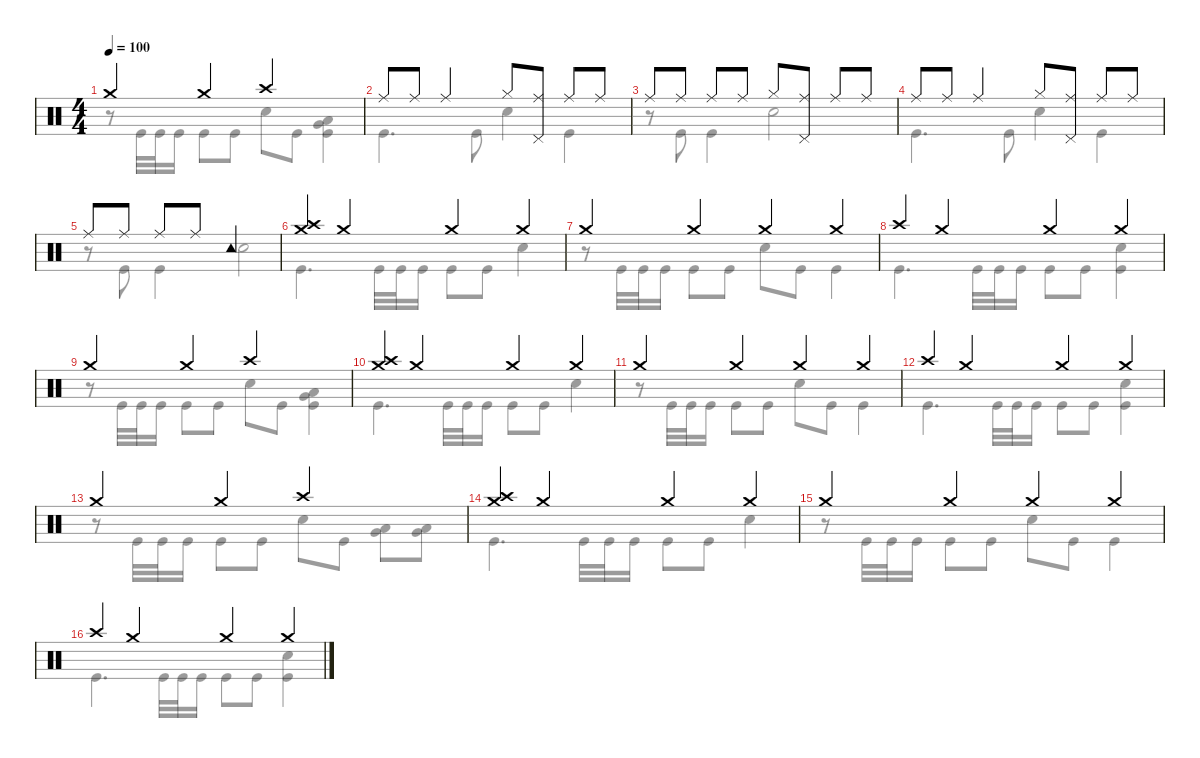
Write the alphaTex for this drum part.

\defaultSystemsLayout 4
\hideDynamics
\bracketExtendMode nobrackets
\singleTrackTrackNamePolicy hidden
\multiTrackTrackNamePolicy hidden
\firstSystemTrackNameMode fullname
\otherSystemsTrackNameOrientation horizontal
\track ("Drums" "drm.") {instrument percussion}
\staff {score}
\articulation defaults
\voice
\ts (4 4)
\tempo 100
\clef neutral
\ks c "Crash medium (hit)".4{dy f beam Up} "Crash medium (hit)".4{beam Up} "Crash high (hit)".2{beam Up}
|
"Ride (middle)".8{beam Up} "Ride (middle)".8{beam Up} "Ride (middle)".4{beam Up} "Hi-Hat (closed)".8{beam Up} ("Ride (middle)" "Pedal Hi-Hat (hit)").8{beam Up} "Ride (middle)".8{beam Up} "Ride (middle)".8{beam Up} |
"Ride (middle)".8{beam Up} "Ride (middle)".8{beam Up} "Ride (middle)".8{beam Up} "Ride (middle)".8{beam Up} "Hi-Hat (closed)".8{beam Up} ("Ride (middle)" "Pedal Hi-Hat (hit)").8{beam Up} "Ride (middle)".8{beam Up} "Ride (middle)".8{beam Up} |
"Ride (middle)".8{beam Up} "Ride (middle)".8{beam Up} "Ride (middle)".4{beam Up} "Hi-Hat (closed)".8{beam Up} ("Ride (middle)" "Pedal Hi-Hat (hit)").8{beam Up} "Ride (middle)".8{beam Up} "Ride (middle)".8{beam Up} |
"Ride (middle)".8{beam Up} "Ride (middle)".8{beam Up} "Ride (middle)".8{beam Up} "Ride (middle)".8{beam Up} "Tambourine (hit)".2{beam Up} |
("Crash medium (hit)" "Crash high (hit)").4{beam Up} "Crash medium (hit)".4{beam Up} "Crash medium (hit)".4{beam Up} "Crash medium (hit)".4{beam Up} |
"Crash medium (hit)".4{beam Up} "Crash medium (hit)".4{beam Up} "Crash medium (hit)".4{beam Up} "Crash medium (hit)".4{beam Up} |
"Crash high (hit)".4{beam Up} "Crash medium (hit)".4{beam Up} "Crash medium (hit)".4{beam Up} "Crash medium (hit)".4{beam Up} |
"Crash medium (hit)".4{beam Up} "Crash medium (hit)".4{beam Up} "Crash high (hit)".2{beam Up} |
("Crash medium (hit)" "Crash high (hit)").4{beam Up} "Crash medium (hit)".4{beam Up} "Crash medium (hit)".4{beam Up} "Crash medium (hit)".4{beam Up} |
"Crash medium (hit)".4{beam Up} "Crash medium (hit)".4{beam Up} "Crash medium (hit)".4{beam Up} "Crash medium (hit)".4{beam Up} |
"Crash high (hit)".4{beam Up} "Crash medium (hit)".4{beam Up} "Crash medium (hit)".4{beam Up} "Crash medium (hit)".4{beam Up} |
"Crash medium (hit)".4{beam Up} "Crash medium (hit)".4{beam Up} "Crash high (hit)".2{beam Up} |
("Crash medium (hit)" "Crash high (hit)").4{beam Up} "Crash medium (hit)".4{beam Up} "Crash medium (hit)".4{beam Up} "Crash medium (hit)".4{beam Up} |
"Crash medium (hit)".4{beam Up} "Crash medium (hit)".4{beam Up} "Crash medium (hit)".4{beam Up} "Crash medium (hit)".4{beam Up} |
"Crash high (hit)".4{beam Up} "Crash medium (hit)".4{beam Up} "Crash medium (hit)".4{beam Up} "Crash medium (hit)".4{beam Up}
\voice
\clef neutral
\ottava regular
\simile none
\ks c
r.8{dy f beam Down} "Kick (hit)".32{beam Down} "Kick (hit)".32{beam Down} "Kick (hit)".16{beam Down} "Kick (hit)".8{beam Down} "Kick (hit)".8{beam Down} "Snare (hit) 2".8{beam Down} "Kick (hit)".8{beam Down} ("Very Low Tom (hit)" "Low Floor Tom (hit)" "Kick (hit)").4{beam Down} |
"Kick (hit)".4{d beam Down} "Kick (hit)".8{beam Down} "Snare (hit) 2".4{beam Down} "Kick (hit)".4{beam Down} |
r.8{beam Down} "Kick (hit)".8{beam Down} "Kick (hit)".4{beam Down} "Snare (hit) 2".2{beam Down} |
"Kick (hit)".4{d beam Down} "Kick (hit)".8{beam Down} "Snare (hit) 2".4{beam Down} "Kick (hit)".4{beam Down} |
r.8{beam Down} "Kick (hit)".8{beam Down} "Kick (hit)".4{beam Down} "Snare (hit) 2".2{beam Down} |
"Kick (hit)".4{d beam Down} "Kick (hit)".32{beam Down} "Kick (hit)".32{beam Down} "Kick (hit)".16{beam Down} "Kick (hit)".8{beam Down} "Kick (hit)".8{beam Down} "Snare (hit) 2".4{beam Down} |
r.8{beam Down} "Kick (hit)".32{beam Down} "Kick (hit)".32{beam Down} "Kick (hit)".16{beam Down} "Kick (hit)".8{beam Down} "Kick (hit)".8{beam Down} "Snare (hit) 2".8{beam Down} "Kick (hit)".8{beam Down} "Kick (hit)".4{beam Down} |
"Kick (hit)".4{d beam Down} "Kick (hit)".32{beam Down} "Kick (hit)".32{beam Down} "Kick (hit)".16{beam Down} "Kick (hit)".8{beam Down} "Kick (hit)".8{beam Down} ("Snare (hit) 2" "Kick (hit)").4{beam Down} |
r.8{beam Down} "Kick (hit)".32{beam Down} "Kick (hit)".32{beam Down} "Kick (hit)".16{beam Down} "Kick (hit)".8{beam Down} "Kick (hit)".8{beam Down} "Snare (hit) 2".8{beam Down} "Kick (hit)".8{beam Down} ("Very Low Tom (hit)" "Low Floor Tom (hit)" "Kick (hit)").4{beam Down} |
"Kick (hit)".4{d beam Down} "Kick (hit)".32{beam Down} "Kick (hit)".32{beam Down} "Kick (hit)".16{beam Down} "Kick (hit)".8{beam Down} "Kick (hit)".8{beam Down} "Snare (hit) 2".4{beam Down} |
r.8{beam Down} "Kick (hit)".32{beam Down} "Kick (hit)".32{beam Down} "Kick (hit)".16{beam Down} "Kick (hit)".8{beam Down} "Kick (hit)".8{beam Down} "Snare (hit) 2".8{beam Down} "Kick (hit)".8{beam Down} "Kick (hit)".4{beam Down} |
"Kick (hit)".4{d beam Down} "Kick (hit)".32{beam Down} "Kick (hit)".32{beam Down} "Kick (hit)".16{beam Down} "Kick (hit)".8{beam Down} "Kick (hit)".8{beam Down} ("Snare (hit) 2" "Kick (hit)").4{beam Down} |
r.8{beam Down} "Kick (hit)".32{beam Down} "Kick (hit)".32{beam Down} "Kick (hit)".16{beam Down} "Kick (hit)".8{beam Down} "Kick (hit)".8{beam Down} "Snare (hit) 2".8{beam Down} "Kick (hit)".8{beam Down} ("Very Low Tom (hit)" "Low Floor Tom (hit)").8{beam Down} ("Very Low Tom (hit)" "Low Floor Tom (hit)").8{beam Down} |
"Kick (hit)".4{d beam Down} "Kick (hit)".32{beam Down} "Kick (hit)".32{beam Down} "Kick (hit)".16{beam Down} "Kick (hit)".8{beam Down} "Kick (hit)".8{beam Down} "Snare (hit) 2".4{beam Down} |
r.8{beam Down} "Kick (hit)".32{beam Down} "Kick (hit)".32{beam Down} "Kick (hit)".16{beam Down} "Kick (hit)".8{beam Down} "Kick (hit)".8{beam Down} "Snare (hit) 2".8{beam Down} "Kick (hit)".8{beam Down} "Kick (hit)".4{beam Down} |
"Kick (hit)".4{d beam Down} "Kick (hit)".32{beam Down} "Kick (hit)".32{beam Down} "Kick (hit)".16{beam Down} "Kick (hit)".8{beam Down} "Kick (hit)".8{beam Down} ("Snare (hit) 2" "Kick (hit)").4{beam Down}
